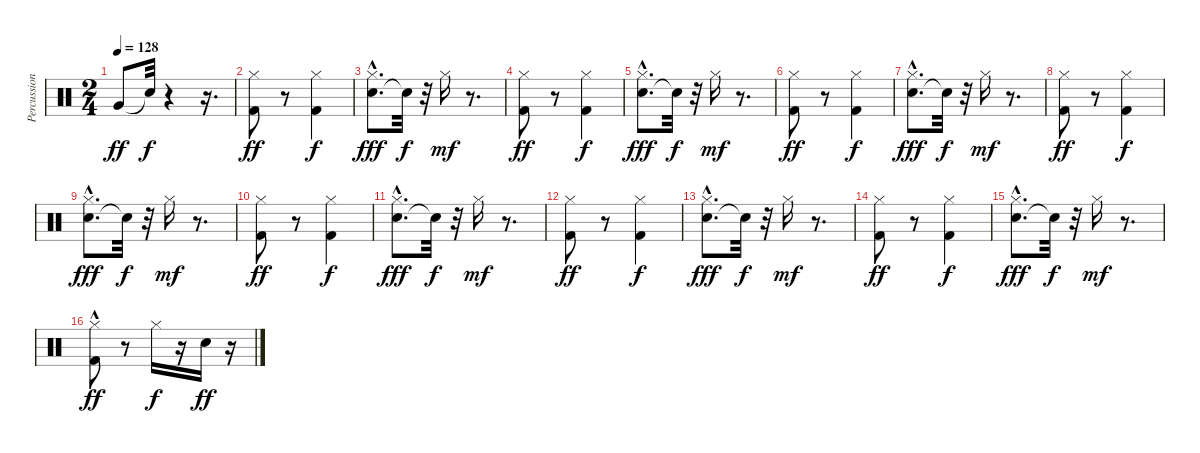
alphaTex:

\track ("Percussion" "Percussion") {instrument percussion}
\staff {score}
\articulation defaults
\ts (2 4)
\tempo 128
\clef neutral
\ks c "Very Low Tom (hit)".8{dy ff} "Snare (hit)"{t}.32{dy f}
r.4 r.16{d} |
("Hi-Hat (closed)" "Kick (hit) 2").8{dy ff} r.8 ("Kick (hit) 2" "Hi-Hat (closed)").4{dy f} |
("Electric Snare (hit)"{hac} "Hi-Hat (closed)").8{d dy fff} "Snare (hit)"{t}.32{dy f} r.32 "Hi-Hat (closed)".16{dy mf} r.8{d} |
("Hi-Hat (closed)" "Kick (hit) 2").8{dy ff} r.8 ("Kick (hit) 2" "Hi-Hat (closed)").4{dy f} |
("Electric Snare (hit)"{hac} "Hi-Hat (closed)").8{d dy fff} "Snare (hit)"{t}.32{dy f} r.32 "Hi-Hat (closed)".16{dy mf} r.8{d} |
("Hi-Hat (closed)" "Kick (hit) 2").8{dy ff} r.8 ("Kick (hit) 2" "Hi-Hat (closed)").4{dy f} |
("Electric Snare (hit)"{hac} "Hi-Hat (closed)").8{d dy fff} "Snare (hit)"{t}.32{dy f} r.32 "Hi-Hat (closed)".16{dy mf} r.8{d} |
("Hi-Hat (closed)" "Kick (hit) 2").8{dy ff} r.8 ("Kick (hit) 2" "Hi-Hat (closed)").4{dy f} |
("Electric Snare (hit)"{hac} "Hi-Hat (closed)").8{d dy fff} "Snare (hit)"{t}.32{dy f} r.32 "Hi-Hat (closed)".16{dy mf} r.8{d} |
("Hi-Hat (closed)" "Kick (hit) 2").8{dy ff} r.8 ("Kick (hit) 2" "Hi-Hat (closed)").4{dy f} |
("Electric Snare (hit)"{hac} "Hi-Hat (closed)").8{d dy fff} "Snare (hit)"{t}.32{dy f} r.32 "Hi-Hat (closed)".16{dy mf} r.8{d} |
("Hi-Hat (closed)" "Kick (hit) 2").8{dy ff} r.8 ("Kick (hit) 2" "Hi-Hat (closed)").4{dy f} |
("Electric Snare (hit)"{hac} "Hi-Hat (closed)").8{d dy fff} "Snare (hit)"{t}.32{dy f} r.32 "Hi-Hat (closed)".16{dy mf} r.8{d} |
("Hi-Hat (closed)" "Kick (hit) 2").8{dy ff} r.8 ("Kick (hit) 2" "Hi-Hat (closed)").4{dy f} |
("Electric Snare (hit)"{hac} "Hi-Hat (closed)").8{d dy fff} "Snare (hit)"{t}.32{dy f} r.32 "Hi-Hat (closed)".16{dy mf} r.8{d} |
("Hi-Hat (closed)"{hac} "Kick (hit) 2").8{dy ff} r.8 "Hi-Hat (closed)".16{dy f} r.16 "Electric Snare (hit)".16{dy ff} r.16
